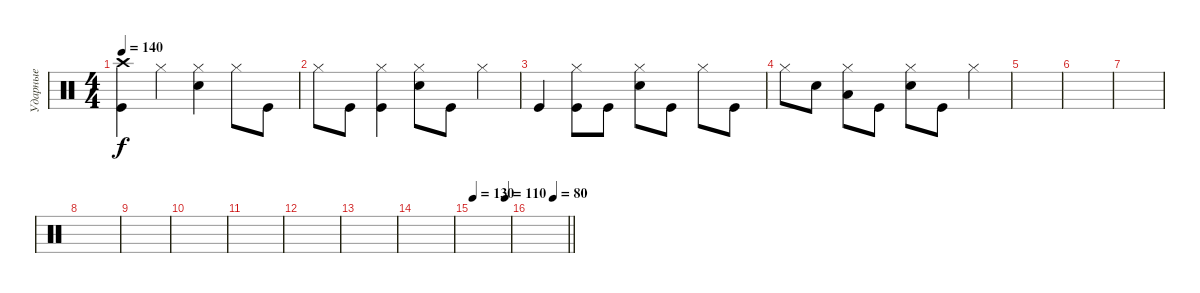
\track ("Ударные" "Ударные") {instrument percussion}
\staff {score}
\articulation defaults
\ts (4 4)
\tempo 140
\clef neutral
\ks c
("Crash high (hit)" "Kick (hit)").4{dy f} "Hi-Hat (closed)".4 ("Hi-Hat (closed)" "Snare (hit) 2").4 "Hi-Hat (closed)".8 "Kick (hit)".8 |
"Hi-Hat (closed)".8 "Kick (hit)".8 ("Hi-Hat (closed)" "Kick (hit)").4 ("Hi-Hat (closed)" "Snare (hit) 2").8 "Kick (hit)".8 "Hi-Hat (closed)".4 |
"Kick (hit)".4 ("Hi-Hat (closed)" "Kick (hit)").8 "Kick (hit)".8 ("Hi-Hat (closed)" "Snare (hit) 2").8 "Kick (hit)".8 "Hi-Hat (closed)".8 "Kick (hit)".8 |
"Hi-Hat (closed)".8 "Snare (hit) 2".8 ("Hi-Hat (closed)" "Low Tom (hit)").8 "Kick (hit)".8 ("Hi-Hat (closed)" "Snare (hit) 2").8 "Kick (hit)".8 "Hi-Hat (closed)".4 |
|
|
|
|
|
|
|
|
|
|
\tempo 130
\tempo (110 0.875)
|
\tempo (80 0.625)
\barLineRight lightlight
